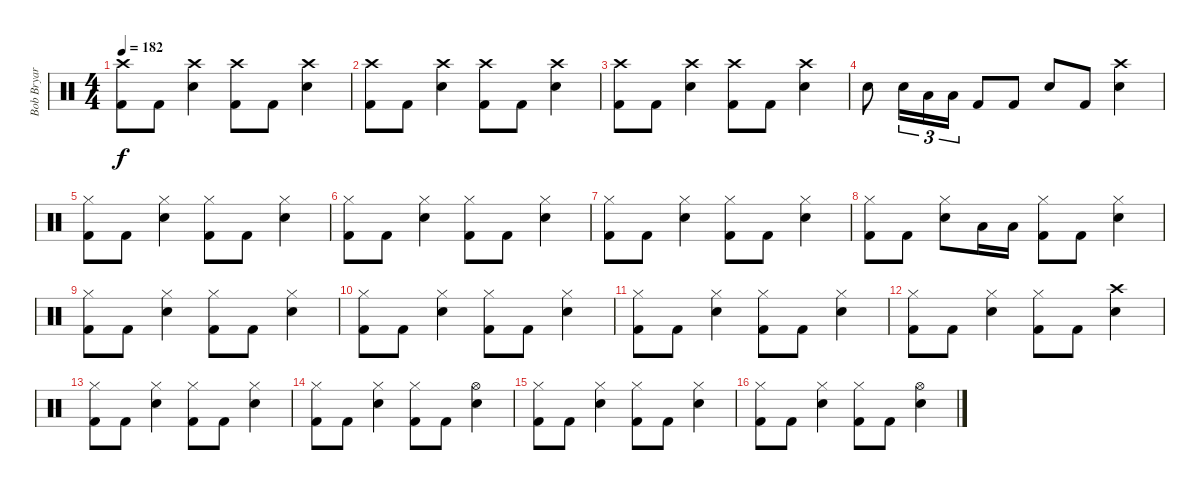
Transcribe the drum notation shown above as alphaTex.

\track ("Bob Bryar" "Bob Bryar") {instrument percussion}
\staff {score}
\articulation defaults
\ts (4 4)
\tempo 182
\clef neutral
\ks c
("Kick (hit) 2" "Crash high (hit)").8{dy f} "Kick (hit) 2".8 ("Snare (hit) 2" "Crash high (hit)").4 ("Kick (hit) 2" "Crash high (hit)").8 "Kick (hit) 2".8 ("Snare (hit) 2" "Crash high (hit)").4 |
("Kick (hit) 2" "Crash high (hit)").8 "Kick (hit) 2".8 ("Snare (hit) 2" "Crash high (hit)").4 ("Kick (hit) 2" "Crash high (hit)").8 "Kick (hit) 2".8 ("Snare (hit) 2" "Crash high (hit)").4 |
("Kick (hit) 2" "Crash high (hit)").8 "Kick (hit) 2".8 ("Snare (hit) 2" "Crash high (hit)").4 ("Kick (hit) 2" "Crash high (hit)").8 "Kick (hit) 2".8 ("Snare (hit) 2" "Crash high (hit)").4 |
"Snare (hit) 2".8 "Snare (hit) 2".16{tu (3 2)} "Low Tom (hit)".16{tu (3 2)} "Low Floor Tom (hit)".16{tu (3 2)} "Kick (hit) 2".8 "Kick (hit) 2".8 "Snare (hit) 2".8 "Kick (hit) 2".8 ("Crash high (hit)" "Snare (hit) 2").4 |
("Kick (hit) 2" "Hi-Hat (closed)").8 "Kick (hit) 2".8 ("Snare (hit) 2" "Hi-Hat (closed)").4 ("Kick (hit) 2" "Hi-Hat (closed)").8 "Kick (hit) 2".8 ("Snare (hit) 2" "Hi-Hat (closed)").4 |
("Kick (hit) 2" "Hi-Hat (closed)").8 "Kick (hit) 2".8 ("Snare (hit) 2" "Hi-Hat (closed)").4 ("Kick (hit) 2" "Hi-Hat (closed)").8 "Kick (hit) 2".8 ("Snare (hit) 2" "Hi-Hat (closed)").4 |
("Kick (hit) 2" "Hi-Hat (closed)").8 "Kick (hit) 2".8 ("Snare (hit) 2" "Hi-Hat (closed)").4 ("Kick (hit) 2" "Hi-Hat (closed)").8 "Kick (hit) 2".8 ("Snare (hit) 2" "Hi-Hat (closed)").4 |
("Kick (hit) 2" "Hi-Hat (closed)").8 "Kick (hit) 2".8 ("Snare (hit) 2" "Hi-Hat (closed)").8 "Low Tom (hit)".16 "Low Tom (hit)".16 ("Kick (hit) 2" "Hi-Hat (closed)").8 "Kick (hit) 2".8 ("Snare (hit) 2" "Hi-Hat (closed)").4 |
("Kick (hit) 2" "Hi-Hat (closed)").8 "Kick (hit) 2".8 ("Snare (hit) 2" "Hi-Hat (closed)").4 ("Kick (hit) 2" "Hi-Hat (closed)").8 "Kick (hit) 2".8 ("Snare (hit) 2" "Hi-Hat (closed)").4 |
("Kick (hit) 2" "Hi-Hat (closed)").8 "Kick (hit) 2".8 ("Snare (hit) 2" "Hi-Hat (closed)").4 ("Kick (hit) 2" "Hi-Hat (closed)").8 "Kick (hit) 2".8 ("Snare (hit) 2" "Hi-Hat (closed)").4 |
("Kick (hit) 2" "Hi-Hat (closed)").8 "Kick (hit) 2".8 ("Snare (hit) 2" "Hi-Hat (closed)").4 ("Kick (hit) 2" "Hi-Hat (closed)").8 "Kick (hit) 2".8 ("Snare (hit) 2" "Hi-Hat (closed)").4 |
("Kick (hit) 2" "Hi-Hat (closed)").8 "Kick (hit) 2".8 ("Snare (hit) 2" "Hi-Hat (closed)").4 ("Kick (hit) 2" "Hi-Hat (closed)").8 "Kick (hit) 2".8 ("Snare (hit) 2" "Crash high (hit)").4 |
("Kick (hit) 2" "Hi-Hat (closed)").8 "Kick (hit) 2".8 ("Snare (hit) 2" "Hi-Hat (closed)").4 ("Kick (hit) 2" "Hi-Hat (closed)").8 "Kick (hit) 2".8 ("Snare (hit) 2" "Hi-Hat (closed)").4 |
("Kick (hit) 2" "Hi-Hat (closed)").8 "Kick (hit) 2".8 ("Snare (hit) 2" "Hi-Hat (closed)").4 ("Kick (hit) 2" "Hi-Hat (closed)").8 "Kick (hit) 2".8 ("Snare (hit) 2" "Hi-Hat (open)").4 |
("Kick (hit) 2" "Hi-Hat (closed)").8 "Kick (hit) 2".8 ("Snare (hit) 2" "Hi-Hat (closed)").4 ("Kick (hit) 2" "Hi-Hat (closed)").8 "Kick (hit) 2".8 ("Snare (hit) 2" "Hi-Hat (closed)").4 |
("Kick (hit) 2" "Hi-Hat (closed)").8 "Kick (hit) 2".8 ("Snare (hit) 2" "Hi-Hat (closed)").4 ("Kick (hit) 2" "Hi-Hat (closed)").8 "Kick (hit) 2".8 ("Snare (hit) 2" "Hi-Hat (open)").4
